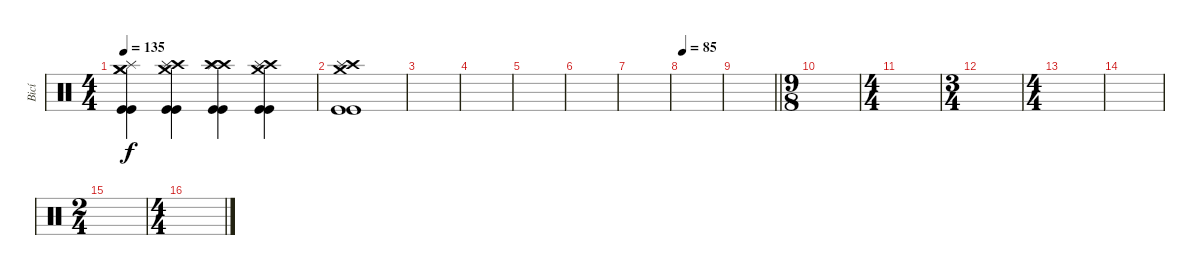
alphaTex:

\track ("Bicí" "Bicí") {instrument percussion}
\staff {score}
\articulation defaults
\ts (4 4)
\tempo 135
\clef neutral
\ks c
("Crash medium (hit)" "Crash medium (hit)" "Splash (hit)" "Kick (hit)" "Kick (hit)").4{dy f} ("Crash medium (hit)" "Crash high (hit)" "Splash (hit)" "Kick (hit)" "Kick (hit)").4 ("Crash high (hit)" "Crash high (hit)" "Splash (hit)" "Kick (hit)" "Kick (hit)").4 ("Crash medium (hit)" "Crash high (hit)" "Splash (hit)" "Kick (hit)" "Kick (hit)").4 |
("Crash medium (hit)" "Crash high (hit)" "Splash (hit)" "Kick (hit)" "Kick (hit)").1 |
|
|
|
|
|
\tempo 85
|
\barLineRight lightlight
|
\ts (9 8)
\section ("" "")
|
\ts (4 4)
|
\ts (3 4)
|
\ts (4 4)
|
|
\ts (2 4)
|
\ts (4 4)
